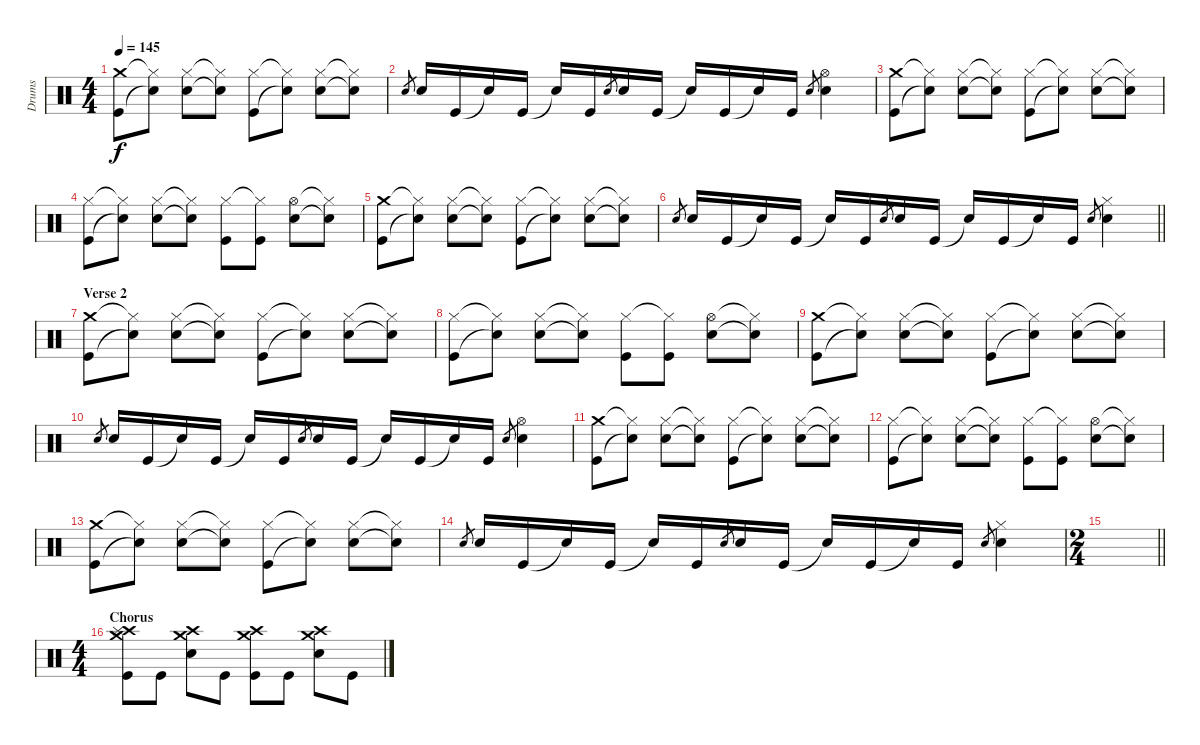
\track ("Drums" "Drums") {instrument percussion}
\staff {score}
\articulation defaults
\ts (4 4)
\tempo 145
\clef neutral
\ks c
("Crash medium (hit)" "Kick (hit)").8{dy f} ("Hi-Hat (closed)"{t} "Electric Snare (hit)"{t}).8 ("Hi-Hat (closed)" "Electric Snare (hit)").8 ("Hi-Hat (closed)"{t} "Electric Snare (hit)"{t}).8 ("Hi-Hat (closed)" "Kick (hit)").8 ("Hi-Hat (closed)"{t} "Electric Snare (hit)"{t}).8 ("Hi-Hat (closed)" "Electric Snare (hit)").8 ("Hi-Hat (closed)"{t} "Electric Snare (hit)"{t}).8 |
"Electric Snare (hit)".8{gr} "Electric Snare (hit)".16 "Kick (hit)".16 "Snare (hit)"{t}.16 "Kick (hit)".16 "Snare (hit)"{t}.16 "Kick (hit)".16 "Electric Snare (hit)".8{gr} "Electric Snare (hit)".16 "Kick (hit)".16 "Snare (hit)"{t}.16 "Kick (hit)".16 "Snare (hit)"{t}.16 "Kick (hit)".16 "Electric Snare (hit)".8{gr} ("Hi-Hat (open)" "Electric Snare (hit)").4 |
("Crash medium (hit)" "Kick (hit)").8 ("Hi-Hat (closed)"{t} "Electric Snare (hit)"{t}).8 ("Hi-Hat (closed)" "Electric Snare (hit)").8 ("Hi-Hat (closed)"{t} "Electric Snare (hit)"{t}).8 ("Hi-Hat (closed)" "Kick (hit)").8 ("Hi-Hat (closed)"{t} "Electric Snare (hit)"{t}).8 ("Hi-Hat (closed)" "Electric Snare (hit)").8 ("Hi-Hat (closed)"{t} "Electric Snare (hit)"{t}).8 |
("Hi-Hat (closed)" "Kick (hit)").8 ("Hi-Hat (closed)"{t} "Electric Snare (hit)"{t}).8 ("Hi-Hat (closed)" "Electric Snare (hit)").8 ("Hi-Hat (closed)"{t} "Electric Snare (hit)"{t}).8 ("Hi-Hat (closed)" "Kick (hit)").8 ("Hi-Hat (closed)"{t} "Kick (hit)").8 ("Hi-Hat (open)" "Electric Snare (hit)").8 ("Hi-Hat (closed)"{t} "Electric Snare (hit)"{t}).8 |
("Crash medium (hit)" "Kick (hit)").8 ("Hi-Hat (closed)"{t} "Electric Snare (hit)"{t}).8 ("Hi-Hat (closed)" "Electric Snare (hit)").8 ("Hi-Hat (closed)"{t} "Electric Snare (hit)"{t}).8 ("Hi-Hat (closed)" "Kick (hit)").8 ("Hi-Hat (closed)"{t} "Electric Snare (hit)"{t}).8 ("Hi-Hat (closed)" "Electric Snare (hit)").8 ("Hi-Hat (closed)"{t} "Electric Snare (hit)"{t}).8 |
\barLineRight lightlight "Electric Snare (hit)".8{gr} "Electric Snare (hit)".16 "Kick (hit)".16 "Snare (hit)"{t}.16 "Kick (hit)".16 "Snare (hit)"{t}.16 "Kick (hit)".16 "Electric Snare (hit)".8{gr} "Electric Snare (hit)".16 "Kick (hit)".16 "Snare (hit)"{t}.16 "Kick (hit)".16 "Snare (hit)"{t}.16 "Kick (hit)".16 "Electric Snare (hit)".8{gr}
("Hi-Hat (closed)" "Electric Snare (hit)").4 |
\section ("" "Verse 2")
("Crash medium (hit)" "Kick (hit)").8 ("Hi-Hat (closed)"{t} "Electric Snare (hit)"{t}).8 ("Hi-Hat (closed)" "Electric Snare (hit)").8 ("Hi-Hat (closed)"{t} "Electric Snare (hit)"{t}).8 ("Hi-Hat (closed)" "Kick (hit)").8 ("Hi-Hat (closed)"{t} "Electric Snare (hit)"{t}).8 ("Hi-Hat (closed)" "Electric Snare (hit)").8 ("Hi-Hat (closed)"{t} "Electric Snare (hit)"{t}).8 |
("Hi-Hat (closed)" "Kick (hit)").8 ("Hi-Hat (closed)"{t} "Electric Snare (hit)"{t}).8 ("Hi-Hat (closed)" "Electric Snare (hit)").8 ("Hi-Hat (closed)"{t} "Electric Snare (hit)"{t}).8 ("Hi-Hat (closed)" "Kick (hit)").8 ("Hi-Hat (closed)"{t} "Kick (hit)").8 ("Hi-Hat (open)" "Electric Snare (hit)").8 ("Hi-Hat (closed)"{t} "Electric Snare (hit)"{t}).8 |
("Crash medium (hit)" "Kick (hit)").8 ("Hi-Hat (closed)"{t} "Electric Snare (hit)"{t}).8 ("Hi-Hat (closed)" "Electric Snare (hit)").8 ("Hi-Hat (closed)"{t} "Electric Snare (hit)"{t}).8 ("Hi-Hat (closed)" "Kick (hit)").8 ("Hi-Hat (closed)"{t} "Electric Snare (hit)"{t}).8 ("Hi-Hat (closed)" "Electric Snare (hit)").8 ("Hi-Hat (closed)"{t} "Electric Snare (hit)"{t}).8 |
"Electric Snare (hit)".8{gr} "Electric Snare (hit)".16 "Kick (hit)".16 "Snare (hit)"{t}.16 "Kick (hit)".16 "Snare (hit)"{t}.16 "Kick (hit)".16 "Electric Snare (hit)".8{gr} "Electric Snare (hit)".16 "Kick (hit)".16 "Snare (hit)"{t}.16 "Kick (hit)".16 "Snare (hit)"{t}.16 "Kick (hit)".16 "Electric Snare (hit)".8{gr} ("Hi-Hat (open)" "Electric Snare (hit)").4 |
("Crash medium (hit)" "Kick (hit)").8 ("Hi-Hat (closed)"{t} "Electric Snare (hit)"{t}).8 ("Hi-Hat (closed)" "Electric Snare (hit)").8 ("Hi-Hat (closed)"{t} "Electric Snare (hit)"{t}).8 ("Hi-Hat (closed)" "Kick (hit)").8 ("Hi-Hat (closed)"{t} "Electric Snare (hit)"{t}).8 ("Hi-Hat (closed)" "Electric Snare (hit)").8 ("Hi-Hat (closed)"{t} "Electric Snare (hit)"{t}).8 |
("Hi-Hat (closed)" "Kick (hit)").8 ("Hi-Hat (closed)"{t} "Electric Snare (hit)"{t}).8 ("Hi-Hat (closed)" "Electric Snare (hit)").8 ("Hi-Hat (closed)"{t} "Electric Snare (hit)"{t}).8 ("Hi-Hat (closed)" "Kick (hit)").8 ("Hi-Hat (closed)"{t} "Kick (hit)").8 ("Hi-Hat (open)" "Electric Snare (hit)").8 ("Hi-Hat (closed)"{t} "Electric Snare (hit)"{t}).8 |
("Crash medium (hit)" "Kick (hit)").8 ("Hi-Hat (closed)"{t} "Electric Snare (hit)"{t}).8 ("Hi-Hat (closed)" "Electric Snare (hit)").8 ("Hi-Hat (closed)"{t} "Electric Snare (hit)"{t}).8 ("Hi-Hat (closed)" "Kick (hit)").8 ("Hi-Hat (closed)"{t} "Electric Snare (hit)"{t}).8 ("Hi-Hat (closed)" "Electric Snare (hit)").8 ("Hi-Hat (closed)"{t} "Electric Snare (hit)"{t}).8 |
"Electric Snare (hit)".8{gr} "Electric Snare (hit)".16 "Kick (hit)".16 "Snare (hit)"{t}.16 "Kick (hit)".16 "Snare (hit)"{t}.16 "Kick (hit)".16 "Electric Snare (hit)".8{gr} "Electric Snare (hit)".16 "Kick (hit)".16 "Snare (hit)"{t}.16 "Kick (hit)".16 "Snare (hit)"{t}.16 "Kick (hit)".16 "Electric Snare (hit)".8{gr} ("Hi-Hat (closed)" "Electric Snare (hit)").4 |
\ts (2 4)
\barLineRight lightlight
|
\ts (4 4)
\section ("" "Chorus")
("Crash medium (hit)" "Crash high (hit)" "Splash (hit)" "Kick (hit)").8 "Kick (hit)".8 ("Crash medium (hit)" "Crash high (hit)" "Electric Snare (hit)").8 "Kick (hit)".8 ("Crash medium (hit)" "Crash high (hit)" "Kick (hit)").8 "Kick (hit)".8 ("Crash medium (hit)" "Crash high (hit)" "Electric Snare (hit)").8 "Kick (hit)".8
